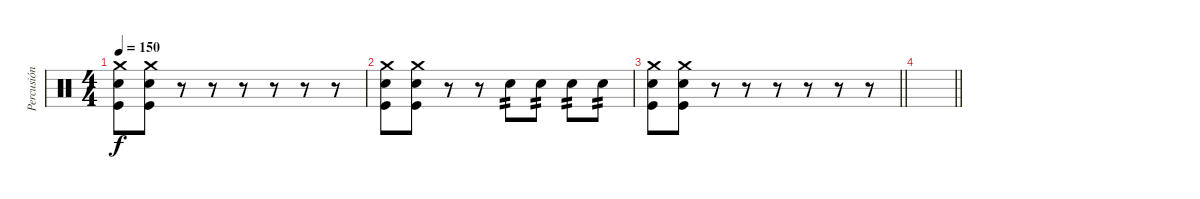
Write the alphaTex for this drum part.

\track ("Percusión" "Percusión") {instrument percussion}
\staff {score}
\articulation defaults
\ts (4 4)
\tempo 150
\clef neutral
\ks c
("Crash medium (hit)" "Electric Snare (hit)" "Kick (hit)").8{dy f} ("Crash medium (hit)" "Electric Snare (hit)" "Kick (hit)").8 r.8 r.8 r.8 r.8 r.8 r.8 |
("Crash medium (hit)" "Electric Snare (hit)" "Kick (hit)").8 ("Crash medium (hit)" "Electric Snare (hit)" "Kick (hit)").8 r.8 r.8 "Electric Snare (hit)".8{tp 2} "Electric Snare (hit)".8{tp 2} "Electric Snare (hit)".8{tp 2} "Electric Snare (hit)".8{tp 2} |
\barLineRight lightlight
("Crash medium (hit)" "Electric Snare (hit)" "Kick (hit)").8 ("Crash medium (hit)" "Electric Snare (hit)" "Kick (hit)").8 r.8 r.8 r.8 r.8 r.8 r.8 |
\barLineRight lightlight
